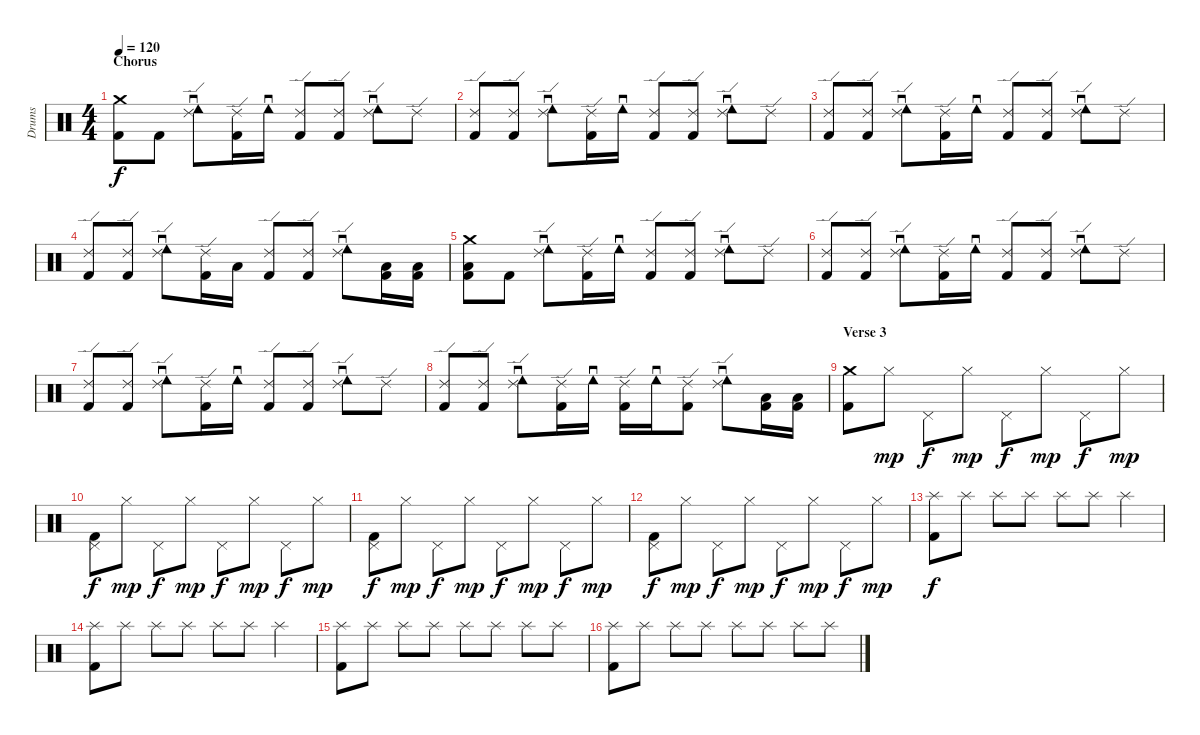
\track ("Drums" "Drums") {instrument percussion}
\staff {score}
\articulation defaults
\ts (4 4)
\section ("" "Chorus")
\tempo 120
\clef neutral
\ks c
("Crash medium (hit)" "Kick (hit) 2").8{dy f} "Kick (hit) 2".8 ("Tambourine (roll)" "Ride (edge) 2").8 ("Ride (edge) 2" "Kick (hit) 2").16 "Tambourine (roll)".16 ("Ride (edge) 2" "Kick (hit) 2").8 ("Ride (edge) 2" "Kick (hit) 2").8 ("Tambourine (roll)" "Ride (edge) 2").8 "Ride (edge) 2".8 |
("Ride (edge) 2" "Kick (hit) 2").8 ("Ride (edge) 2" "Kick (hit) 2").8 ("Tambourine (roll)" "Ride (edge) 2").8 ("Ride (edge) 2" "Kick (hit) 2").16 "Tambourine (roll)".16 ("Ride (edge) 2" "Kick (hit) 2").8 ("Ride (edge) 2" "Kick (hit) 2").8 ("Tambourine (roll)" "Ride (edge) 2").8 "Ride (edge) 2".8 |
("Ride (edge) 2" "Kick (hit) 2").8 ("Ride (edge) 2" "Kick (hit) 2").8 ("Tambourine (roll)" "Ride (edge) 2").8 ("Ride (edge) 2" "Kick (hit) 2").16 "Tambourine (roll)".16 ("Ride (edge) 2" "Kick (hit) 2").8 ("Ride (edge) 2" "Kick (hit) 2").8 ("Tambourine (roll)" "Ride (edge) 2").8 "Ride (edge) 2".8 |
("Ride (edge) 2" "Kick (hit) 2").8 ("Ride (edge) 2" "Kick (hit) 2").8 ("Tambourine (roll)" "Ride (edge) 2").8 ("Ride (edge) 2" "Kick (hit) 2").16 "Low Floor Tom (hit)".16 ("Ride (edge) 2" "Kick (hit) 2").8 ("Ride (edge) 2" "Kick (hit) 2").8 ("Tambourine (roll)" "Ride (edge) 2").8 ("Low Floor Tom (hit)" "Kick (hit) 2").16 ("Low Floor Tom (hit)" "Kick (hit) 2").16 |
("Crash medium (hit)" "Low Floor Tom (hit)" "Kick (hit) 2").8 "Kick (hit) 2".8 ("Tambourine (roll)" "Ride (edge) 2").8 ("Ride (edge) 2" "Kick (hit) 2").16 "Tambourine (roll)".16 ("Ride (edge) 2" "Kick (hit) 2").8 ("Ride (edge) 2" "Kick (hit) 2").8 ("Tambourine (roll)" "Ride (edge) 2").8 "Ride (edge) 2".8 |
("Ride (edge) 2" "Kick (hit) 2").8 ("Ride (edge) 2" "Kick (hit) 2").8 ("Tambourine (roll)" "Ride (edge) 2").8 ("Ride (edge) 2" "Kick (hit) 2").16 "Tambourine (roll)".16 ("Ride (edge) 2" "Kick (hit) 2").8 ("Ride (edge) 2" "Kick (hit) 2").8 ("Tambourine (roll)" "Ride (edge) 2").8 "Ride (edge) 2".8 |
("Ride (edge) 2" "Kick (hit) 2").8 ("Ride (edge) 2" "Kick (hit) 2").8 ("Tambourine (roll)" "Ride (edge) 2").8 ("Ride (edge) 2" "Kick (hit) 2").16 "Tambourine (roll)".16 ("Ride (edge) 2" "Kick (hit) 2").8 ("Ride (edge) 2" "Kick (hit) 2").8 ("Tambourine (roll)" "Ride (edge) 2").8 "Ride (edge) 2".8 |
("Ride (edge) 2" "Kick (hit) 2").8 ("Ride (edge) 2" "Kick (hit) 2").8 ("Tambourine (roll)" "Ride (edge) 2").8 ("Ride (edge) 2" "Kick (hit) 2").16 "Tambourine (roll)".16 ("Ride (edge) 2" "Kick (hit) 2").16 "Tambourine (roll)".16 ("Ride (edge) 2" "Kick (hit) 2").8 ("Tambourine (roll)" "Ride (edge) 2").8 ("Low Floor Tom (hit)" "Kick (hit) 2").16 ("Low Floor Tom (hit)" "Kick (hit) 2").16 |
\section ("" "Verse 3")
("Crash medium (hit)" "Kick (hit) 2").8 "Hi-Hat (closed)".8{dy mp} "Pedal Hi-Hat (hit)".8{dy f} "Hi-Hat (closed)".8{dy mp} "Pedal Hi-Hat (hit)".8{dy f} "Hi-Hat (closed)".8{dy mp} "Pedal Hi-Hat (hit)".8{dy f} "Hi-Hat (closed)".8{dy mp} |
("Pedal Hi-Hat (hit)" "Kick (hit) 2").8{dy f} "Hi-Hat (closed)".8{dy mp} "Pedal Hi-Hat (hit)".8{dy f} "Hi-Hat (closed)".8{dy mp} "Pedal Hi-Hat (hit)".8{dy f} "Hi-Hat (closed)".8{dy mp} "Pedal Hi-Hat (hit)".8{dy f} "Hi-Hat (closed)".8{dy mp} |
("Pedal Hi-Hat (hit)" "Kick (hit) 2").8{dy f} "Hi-Hat (closed)".8{dy mp} "Pedal Hi-Hat (hit)".8{dy f} "Hi-Hat (closed)".8{dy mp} "Pedal Hi-Hat (hit)".8{dy f} "Hi-Hat (closed)".8{dy mp} "Pedal Hi-Hat (hit)".8{dy f} "Hi-Hat (closed)".8{dy mp} |
("Pedal Hi-Hat (hit)" "Kick (hit) 2").8{dy f} "Hi-Hat (closed)".8{dy mp} "Pedal Hi-Hat (hit)".8{dy f} "Hi-Hat (closed)".8{dy mp} "Pedal Hi-Hat (hit)".8{dy f} "Hi-Hat (closed)".8{dy mp} "Pedal Hi-Hat (hit)".8{dy f} "Hi-Hat (closed)".8{dy mp} |
("Splash (hit)" "Kick (hit) 2").8{dy f} "Splash (hit)".8 "Splash (hit)".8 "Splash (hit)".8 "Splash (hit)".8 "Splash (hit)".8 "Splash (hit)".4 |
("Splash (hit)" "Kick (hit) 2").8 "Splash (hit)".8 "Splash (hit)".8 "Splash (hit)".8 "Splash (hit)".8 "Splash (hit)".8 "Splash (hit)".4 |
("Splash (hit)" "Kick (hit) 2").8 "Splash (hit)".8 "Splash (hit)".8 "Splash (hit)".8 "Splash (hit)".8 "Splash (hit)".8 "Splash (hit)".8 "Splash (hit)".8 |
("Splash (hit)" "Kick (hit) 2").8 "Splash (hit)".8 "Splash (hit)".8 "Splash (hit)".8 "Splash (hit)".8 "Splash (hit)".8 "Splash (hit)".8 "Splash (hit)".8
